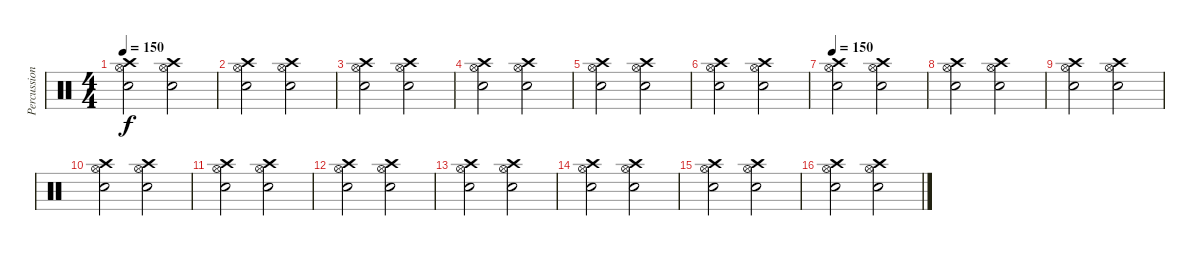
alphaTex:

\track ("Percussion" "Percussion") {instrument percussion}
\staff {score}
\articulation defaults
\ts (4 4)
\tempo 150
\clef neutral
\ks c
("Crash high (hit)" "Snare (hit) 2" "Hi-Hat (open)").2{dy f volume 16} ("Crash high (hit)" "Snare (hit) 2" "Hi-Hat (open)").2 |
("Crash high (hit)" "Snare (hit) 2" "Hi-Hat (open)").2 ("Crash high (hit)" "Snare (hit) 2" "Hi-Hat (open)").2 |
("Crash high (hit)" "Snare (hit) 2" "Hi-Hat (open)").2{volume 16} ("Crash high (hit)" "Snare (hit) 2" "Hi-Hat (open)").2 |
("Crash high (hit)" "Snare (hit) 2" "Hi-Hat (open)").2 ("Crash high (hit)" "Snare (hit) 2" "Hi-Hat (open)").2 |
("Crash high (hit)" "Snare (hit) 2" "Hi-Hat (open)").2{volume 16} ("Crash high (hit)" "Snare (hit) 2" "Hi-Hat (open)").2 |
("Crash high (hit)" "Snare (hit) 2" "Hi-Hat (open)").2 ("Crash high (hit)" "Snare (hit) 2" "Hi-Hat (open)").2 |
\tempo 150
("Crash high (hit)" "Snare (hit) 2" "Hi-Hat (open)").2{volume 16} ("Crash high (hit)" "Snare (hit) 2" "Hi-Hat (open)").2 |
("Crash high (hit)" "Snare (hit) 2" "Hi-Hat (open)").2 ("Crash high (hit)" "Snare (hit) 2" "Hi-Hat (open)").2 |
("Crash high (hit)" "Snare (hit) 2" "Hi-Hat (open)").2{volume 16} ("Crash high (hit)" "Snare (hit) 2" "Hi-Hat (open)").2 |
("Crash high (hit)" "Snare (hit) 2" "Hi-Hat (open)").2 ("Crash high (hit)" "Snare (hit) 2" "Hi-Hat (open)").2 |
("Crash high (hit)" "Snare (hit) 2" "Hi-Hat (open)").2{volume 16} ("Crash high (hit)" "Snare (hit) 2" "Hi-Hat (open)").2 |
("Crash high (hit)" "Snare (hit) 2" "Hi-Hat (open)").2 ("Crash high (hit)" "Snare (hit) 2" "Hi-Hat (open)").2 |
("Crash high (hit)" "Snare (hit) 2" "Hi-Hat (open)").2 ("Crash high (hit)" "Snare (hit) 2" "Hi-Hat (open)").2 |
("Crash high (hit)" "Snare (hit) 2" "Hi-Hat (open)").2 ("Crash high (hit)" "Snare (hit) 2" "Hi-Hat (open)").2 |
("Crash high (hit)" "Snare (hit) 2" "Hi-Hat (open)").2 ("Crash high (hit)" "Snare (hit) 2" "Hi-Hat (open)").2 |
("Crash high (hit)" "Snare (hit) 2" "Hi-Hat (open)").2 ("Crash high (hit)" "Snare (hit) 2" "Hi-Hat (open)").2
